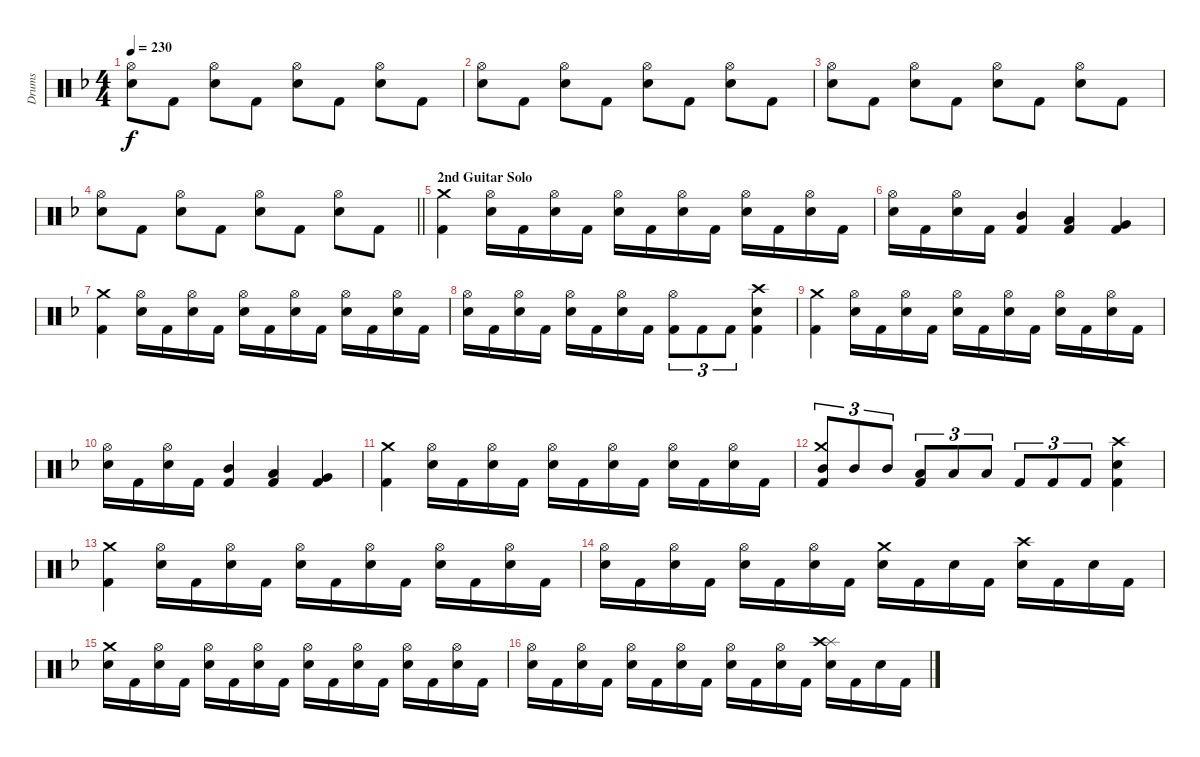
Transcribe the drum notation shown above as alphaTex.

\track ("Drums" "Drums") {instrument percussion}
\staff {score}
\articulation defaults
\ts (4 4)
\tempo 230
\clef neutral
\ks f
("Hi-Hat (open)" "Snare (hit) 2").8{dy f} "Kick (hit) 2".8 ("Hi-Hat (open)" "Snare (hit) 2").8 "Kick (hit) 2".8 ("Hi-Hat (open)" "Snare (hit) 2").8 "Kick (hit) 2".8 ("Hi-Hat (open)" "Snare (hit) 2").8 "Kick (hit) 2".8 |
("Hi-Hat (open)" "Snare (hit) 2").8 "Kick (hit) 2".8 ("Hi-Hat (open)" "Snare (hit) 2").8 "Kick (hit) 2".8 ("Hi-Hat (open)" "Snare (hit) 2").8 "Kick (hit) 2".8 ("Hi-Hat (open)" "Snare (hit) 2").8 "Kick (hit) 2".8 |
("Hi-Hat (open)" "Snare (hit) 2").8 "Kick (hit) 2".8 ("Hi-Hat (open)" "Snare (hit) 2").8 "Kick (hit) 2".8 ("Hi-Hat (open)" "Snare (hit) 2").8 "Kick (hit) 2".8 ("Hi-Hat (open)" "Snare (hit) 2").8 "Kick (hit) 2".8 |
\barLineRight lightlight
("Hi-Hat (open)" "Snare (hit) 2").8 "Kick (hit) 2".8 ("Hi-Hat (open)" "Snare (hit) 2").8 "Kick (hit) 2".8 ("Hi-Hat (open)" "Snare (hit) 2").8 "Kick (hit) 2".8 ("Hi-Hat (open)" "Snare (hit) 2").8 "Kick (hit) 2".8 |
\section ("" "2nd Guitar Solo")
("Crash medium (hit)" "Kick (hit) 2").4 ("Hi-Hat (open)" "Snare (hit) 2").16 "Kick (hit) 2".16 ("Hi-Hat (open)" "Snare (hit) 2").16 "Kick (hit) 2".16 ("Hi-Hat (open)" "Snare (hit) 2").16 "Kick (hit) 2".16 ("Hi-Hat (open)" "Snare (hit) 2").16 "Kick (hit) 2".16 ("Hi-Hat (open)" "Snare (hit) 2").16 "Kick (hit) 2".16 ("Hi-Hat (open)" "Snare (hit) 2").16 "Kick (hit) 2".16 |
("Hi-Hat (open)" "Snare (hit) 2").16 "Kick (hit) 2".16 ("Hi-Hat (open)" "Snare (hit) 2").16 "Kick (hit) 2".16 ("Mid Tom (hit)" "Kick (hit) 2").4 ("Low Tom (hit)" "Kick (hit) 2").4 ("Very Low Tom (hit)" "Kick (hit) 2").4 |
("Crash medium (hit)" "Kick (hit) 2").4 ("Hi-Hat (open)" "Snare (hit) 2").16 "Kick (hit) 2".16 ("Hi-Hat (open)" "Snare (hit) 2").16 "Kick (hit) 2".16 ("Hi-Hat (open)" "Snare (hit) 2").16 "Kick (hit) 2".16 ("Hi-Hat (open)" "Snare (hit) 2").16 "Kick (hit) 2".16 ("Hi-Hat (open)" "Snare (hit) 2").16 "Kick (hit) 2".16 ("Hi-Hat (open)" "Snare (hit) 2").16 "Kick (hit) 2".16 |
("Hi-Hat (open)" "Snare (hit) 2").16 "Kick (hit) 2".16 ("Hi-Hat (open)" "Snare (hit) 2").16 "Kick (hit) 2".16 ("Hi-Hat (open)" "Snare (hit) 2").16 "Kick (hit) 2".16 ("Hi-Hat (open)" "Snare (hit) 2").16 "Kick (hit) 2".16 ("Hi-Hat (open)" "Kick (hit) 2").8{tu (3 2)} "Kick (hit) 2".8{tu (3 2)} "Kick (hit) 2".8{tu (3 2)} ("Crash high (hit)" "Snare (hit) 2" "Kick (hit) 2").4 |
("Crash medium (hit)" "Kick (hit) 2").4 ("Hi-Hat (open)" "Snare (hit) 2").16 "Kick (hit) 2".16 ("Hi-Hat (open)" "Snare (hit) 2").16 "Kick (hit) 2".16 ("Hi-Hat (open)" "Snare (hit) 2").16 "Kick (hit) 2".16 ("Hi-Hat (open)" "Snare (hit) 2").16 "Kick (hit) 2".16 ("Hi-Hat (open)" "Snare (hit) 2").16 "Kick (hit) 2".16 ("Hi-Hat (open)" "Snare (hit) 2").16 "Kick (hit) 2".16 |
("Hi-Hat (open)" "Snare (hit) 2").16 "Kick (hit) 2".16 ("Hi-Hat (open)" "Snare (hit) 2").16 "Kick (hit) 2".16 ("Mid Tom (hit)" "Kick (hit) 2").4 ("Low Tom (hit)" "Kick (hit) 2").4 ("Very Low Tom (hit)" "Kick (hit) 2").4 |
("Crash medium (hit)" "Kick (hit) 2").4 ("Hi-Hat (open)" "Snare (hit) 2").16 "Kick (hit) 2".16 ("Hi-Hat (open)" "Snare (hit) 2").16 "Kick (hit) 2".16 ("Hi-Hat (open)" "Snare (hit) 2").16 "Kick (hit) 2".16 ("Hi-Hat (open)" "Snare (hit) 2").16 "Kick (hit) 2".16 ("Hi-Hat (open)" "Snare (hit) 2").16 "Kick (hit) 2".16 ("Hi-Hat (open)" "Snare (hit) 2").16 "Kick (hit) 2".16 |
("Crash medium (hit)" "Mid Tom (hit)" "Kick (hit) 2").8{tu (3 2)} "Mid Tom (hit)".8{tu (3 2)} "Mid Tom (hit)".8{tu (3 2)} ("Low Tom (hit)" "Kick (hit) 2").8{tu (3 2)} "Low Tom (hit)".8{tu (3 2)} "Low Tom (hit)".8{tu (3 2)} "Kick (hit) 2".8{tu (3 2)} "Kick (hit) 2".8{tu (3 2)} "Kick (hit) 2".8{tu (3 2)} ("Crash high (hit)" "Snare (hit) 2" "Kick (hit) 2").4 |
("Crash medium (hit)" "Kick (hit) 2").4 ("Hi-Hat (open)" "Snare (hit) 2").16 "Kick (hit) 2".16 ("Hi-Hat (open)" "Snare (hit) 2").16 "Kick (hit) 2".16 ("Hi-Hat (open)" "Snare (hit) 2").16 "Kick (hit) 2".16 ("Hi-Hat (open)" "Snare (hit) 2").16 "Kick (hit) 2".16 ("Hi-Hat (open)" "Snare (hit) 2").16 "Kick (hit) 2".16 ("Hi-Hat (open)" "Snare (hit) 2").16 "Kick (hit) 2".16 |
("Hi-Hat (open)" "Snare (hit) 2").16 "Kick (hit) 2".16 ("Hi-Hat (open)" "Snare (hit) 2").16 "Kick (hit) 2".16 ("Hi-Hat (open)" "Snare (hit) 2").16 "Kick (hit) 2".16 ("Hi-Hat (open)" "Snare (hit) 2").16 "Kick (hit) 2".16 ("Crash medium (hit)" "Snare (hit) 2").16 "Kick (hit) 2".16 "Snare (hit) 2".16 "Kick (hit) 2".16 ("Crash high (hit)" "Snare (hit) 2").16 "Kick (hit) 2".16 "Snare (hit) 2".16 "Kick (hit) 2".16 |
("Crash medium (hit)" "Snare (hit) 2").16 "Kick (hit) 2".16 ("Hi-Hat (open)" "Snare (hit) 2").16 "Kick (hit) 2".16 ("Hi-Hat (open)" "Snare (hit) 2").16 "Kick (hit) 2".16 ("Hi-Hat (open)" "Snare (hit) 2").16 "Kick (hit) 2".16 ("Hi-Hat (open)" "Snare (hit) 2").16 "Kick (hit) 2".16 ("Hi-Hat (open)" "Snare (hit) 2").16 "Kick (hit) 2".16 ("Hi-Hat (open)" "Snare (hit) 2").16 "Kick (hit) 2".16 ("Hi-Hat (open)" "Snare (hit) 2").16 "Kick (hit) 2".16 |
("Hi-Hat (open)" "Snare (hit) 2").16 "Kick (hit) 2".16 ("Hi-Hat (open)" "Snare (hit) 2").16 "Kick (hit) 2".16 ("Hi-Hat (open)" "Snare (hit) 2").16 "Kick (hit) 2".16 ("Hi-Hat (open)" "Snare (hit) 2").16 "Kick (hit) 2".16 ("Hi-Hat (open)" "Snare (hit) 2").16 "Kick (hit) 2".16 ("Hi-Hat (open)" "Snare (hit) 2").16 "Kick (hit) 2".16 ("Splash (hit)" "Crash high (hit)" "Snare (hit) 2").16 "Kick (hit) 2".16 "Snare (hit) 2".16 "Kick (hit) 2".16
